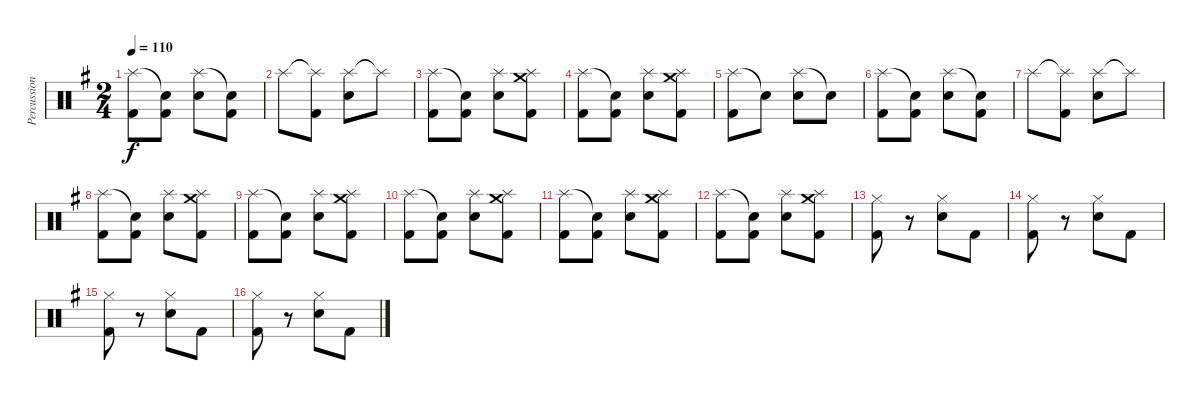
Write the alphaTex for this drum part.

\track ("Percussion" "Percussion") {instrument percussion}
\staff {score}
\articulation defaults
\ts (2 4)
\tempo 110
\clef neutral
\ks g
("Splash (hit)" "Kick (hit) 2").8{dy f} ("Snare (hit)"{t} "Kick (hit) 2").8 ("Splash (hit)" "Electric Snare (hit)").8 ("Snare (hit)"{t} "Kick (hit) 2").8 |
"Splash (hit)".8 ("Splash (hit)"{t} "Kick (hit) 2").8 ("Splash (hit)" "Electric Snare (hit)").8 "Splash (hit)"{t}.8 |
("Splash (hit)" "Kick (hit) 2").8 ("Snare (hit)"{t} "Kick (hit) 2").8 ("Splash (hit)" "Electric Snare (hit)").8 ("Crash medium (hit)" "Splash (hit)" "Kick (hit) 2").8 |
("Splash (hit)" "Kick (hit) 2").8 ("Snare (hit)"{t} "Kick (hit) 2").8 ("Splash (hit)" "Electric Snare (hit)").8 ("Crash medium (hit)" "Splash (hit)" "Kick (hit) 2").8 |
("Splash (hit)" "Kick (hit) 2").8 "Snare (hit)"{t}.8 ("Splash (hit)" "Electric Snare (hit)").8 "Snare (hit)"{t}.8 |
("Splash (hit)" "Kick (hit) 2").8 ("Snare (hit)"{t} "Kick (hit) 2").8 ("Splash (hit)" "Electric Snare (hit)").8 ("Snare (hit)"{t} "Kick (hit) 2").8 |
"Splash (hit)".8 ("Splash (hit)"{t} "Kick (hit) 2").8 ("Splash (hit)" "Electric Snare (hit)").8 "Splash (hit)"{t}.8 |
("Splash (hit)" "Kick (hit) 2").8 ("Snare (hit)"{t} "Kick (hit) 2").8 ("Splash (hit)" "Electric Snare (hit)").8 ("Crash medium (hit)" "Splash (hit)" "Kick (hit) 2").8 |
("Splash (hit)" "Kick (hit) 2").8 ("Snare (hit)"{t} "Kick (hit) 2").8 ("Splash (hit)" "Electric Snare (hit)").8 ("Crash medium (hit)" "Splash (hit)" "Kick (hit) 2").8 |
("Splash (hit)" "Kick (hit) 2").8 ("Snare (hit)"{t} "Kick (hit) 2").8 ("Splash (hit)" "Electric Snare (hit)").8 ("Crash medium (hit)" "Splash (hit)" "Kick (hit) 2").8 |
("Splash (hit)" "Kick (hit) 2").8 ("Snare (hit)"{t} "Kick (hit) 2").8 ("Splash (hit)" "Electric Snare (hit)").8 ("Crash medium (hit)" "Splash (hit)" "Kick (hit) 2").8 |
("Splash (hit)" "Kick (hit) 2").8 ("Snare (hit)"{t} "Kick (hit) 2").8 ("Splash (hit)" "Electric Snare (hit)").8 ("Crash medium (hit)" "Splash (hit)" "Kick (hit) 2").8 |
("Hi-Hat (closed)" "Kick (hit) 2").8 r.8 ("Hi-Hat (closed)" "Electric Snare (hit)").8 "Kick (hit) 2".8 |
("Hi-Hat (closed)" "Kick (hit) 2").8 r.8 ("Hi-Hat (closed)" "Electric Snare (hit)").8 "Kick (hit) 2".8 |
("Hi-Hat (closed)" "Kick (hit) 2").8 r.8 ("Hi-Hat (closed)" "Electric Snare (hit)").8 "Kick (hit) 2".8 |
("Hi-Hat (closed)" "Kick (hit) 2").8 r.8 ("Hi-Hat (closed)" "Electric Snare (hit)").8 "Kick (hit) 2".8
